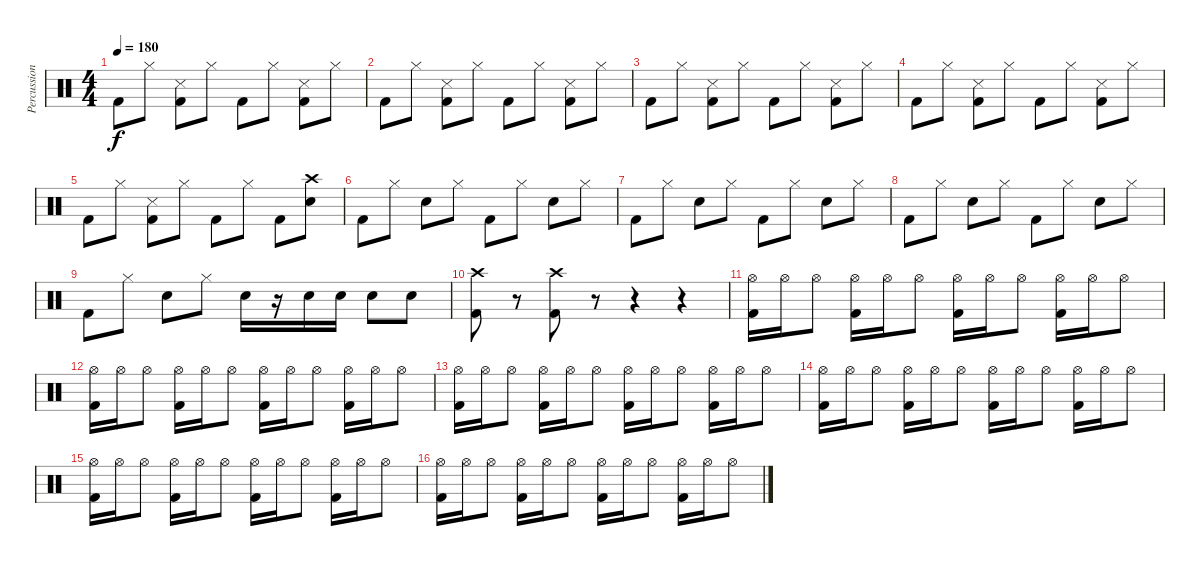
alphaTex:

\track ("Percussion" "Percussion") {instrument percussion}
\staff {score}
\articulation defaults
\ts (4 4)
\tempo 180
\clef neutral
\ks c "Kick (hit) 2".8{dy f} "Hi-Hat (closed)".8
("Snare (side stick) 3" "Kick (hit) 2").8 "Hi-Hat (closed)".8 "Kick (hit) 2".8 "Hi-Hat (closed)".8 ("Snare (side stick) 3" "Kick (hit) 2").8 "Hi-Hat (closed)".8 |
"Kick (hit) 2".8 "Hi-Hat (closed)".8 ("Snare (side stick) 3" "Kick (hit) 2").8 "Hi-Hat (closed)".8 "Kick (hit) 2".8 "Hi-Hat (closed)".8 ("Snare (side stick) 3" "Kick (hit) 2").8 "Hi-Hat (closed)".8 |
"Kick (hit) 2".8 "Hi-Hat (closed)".8 ("Snare (side stick) 3" "Kick (hit) 2").8 "Hi-Hat (closed)".8 "Kick (hit) 2".8 "Hi-Hat (closed)".8 ("Snare (side stick) 3" "Kick (hit) 2").8 "Hi-Hat (closed)".8 |
"Kick (hit) 2".8 "Hi-Hat (closed)".8 ("Snare (side stick) 3" "Kick (hit) 2").8 "Hi-Hat (closed)".8 "Kick (hit) 2".8 "Hi-Hat (closed)".8 ("Snare (side stick) 3" "Kick (hit) 2").8 "Hi-Hat (closed)".8 |
"Kick (hit) 2".8 "Hi-Hat (closed)".8 ("Snare (side stick) 3" "Kick (hit) 2").8 "Hi-Hat (closed)".8 "Kick (hit) 2".8 "Hi-Hat (closed)".8 "Kick (hit) 2".8 ("Crash high (hit)" "Electric Snare (hit)").8 |
"Kick (hit) 2".8 "Hi-Hat (closed)".8 "Electric Snare (hit)".8 "Hi-Hat (closed)".8 "Kick (hit) 2".8 "Hi-Hat (closed)".8 "Electric Snare (hit)".8 "Hi-Hat (closed)".8 |
"Kick (hit) 2".8 "Hi-Hat (closed)".8 "Electric Snare (hit)".8 "Hi-Hat (closed)".8 "Kick (hit) 2".8 "Hi-Hat (closed)".8 "Electric Snare (hit)".8 "Hi-Hat (closed)".8 |
"Kick (hit) 2".8 "Hi-Hat (closed)".8 "Electric Snare (hit)".8 "Hi-Hat (closed)".8 "Kick (hit) 2".8 "Hi-Hat (closed)".8 "Electric Snare (hit)".8 "Hi-Hat (closed)".8 |
"Kick (hit) 2".8 "Hi-Hat (closed)".8 "Electric Snare (hit)".8 "Hi-Hat (closed)".8 "Electric Snare (hit)".16 r.16 "Electric Snare (hit)".16 "Electric Snare (hit)".16 "Electric Snare (hit)".8 "Electric Snare (hit)".8 |
("Crash high (hit)" "Kick (hit) 2").8 r.8 ("Crash high (hit)" "Kick (hit) 2").8 r.8 r.4 r.4 |
("Hi-Hat (open)" "Kick (hit) 2").16 "Hi-Hat (open)".16 "Hi-Hat (open)".8 ("Hi-Hat (open)" "Kick (hit) 2").16 "Hi-Hat (open)".16 "Hi-Hat (open)".8 ("Hi-Hat (open)" "Kick (hit) 2").16 "Hi-Hat (open)".16 "Hi-Hat (open)".8 ("Hi-Hat (open)" "Kick (hit) 2").16 "Hi-Hat (open)".16 "Hi-Hat (open)".8 |
("Hi-Hat (open)" "Kick (hit) 2").16 "Hi-Hat (open)".16 "Hi-Hat (open)".8 ("Hi-Hat (open)" "Kick (hit) 2").16 "Hi-Hat (open)".16 "Hi-Hat (open)".8 ("Hi-Hat (open)" "Kick (hit) 2").16 "Hi-Hat (open)".16 "Hi-Hat (open)".8 ("Hi-Hat (open)" "Kick (hit) 2").16 "Hi-Hat (open)".16 "Hi-Hat (open)".8 |
("Hi-Hat (open)" "Kick (hit) 2").16 "Hi-Hat (open)".16 "Hi-Hat (open)".8 ("Hi-Hat (open)" "Kick (hit) 2").16 "Hi-Hat (open)".16 "Hi-Hat (open)".8 ("Hi-Hat (open)" "Kick (hit) 2").16 "Hi-Hat (open)".16 "Hi-Hat (open)".8 ("Hi-Hat (open)" "Kick (hit) 2").16 "Hi-Hat (open)".16 "Hi-Hat (open)".8 |
("Hi-Hat (open)" "Kick (hit) 2").16 "Hi-Hat (open)".16 "Hi-Hat (open)".8 ("Hi-Hat (open)" "Kick (hit) 2").16 "Hi-Hat (open)".16 "Hi-Hat (open)".8 ("Hi-Hat (open)" "Kick (hit) 2").16 "Hi-Hat (open)".16 "Hi-Hat (open)".8 ("Hi-Hat (open)" "Kick (hit) 2").16 "Hi-Hat (open)".16 "Hi-Hat (open)".8 |
("Hi-Hat (open)" "Kick (hit) 2").16 "Hi-Hat (open)".16 "Hi-Hat (open)".8 ("Hi-Hat (open)" "Kick (hit) 2").16 "Hi-Hat (open)".16 "Hi-Hat (open)".8 ("Hi-Hat (open)" "Kick (hit) 2").16 "Hi-Hat (open)".16 "Hi-Hat (open)".8 ("Hi-Hat (open)" "Kick (hit) 2").16 "Hi-Hat (open)".16 "Hi-Hat (open)".8 |
("Hi-Hat (open)" "Kick (hit) 2").16 "Hi-Hat (open)".16 "Hi-Hat (open)".8 ("Hi-Hat (open)" "Kick (hit) 2").16 "Hi-Hat (open)".16 "Hi-Hat (open)".8 ("Hi-Hat (open)" "Kick (hit) 2").16 "Hi-Hat (open)".16 "Hi-Hat (open)".8 ("Hi-Hat (open)" "Kick (hit) 2").16 "Hi-Hat (open)".16 "Hi-Hat (open)".8
